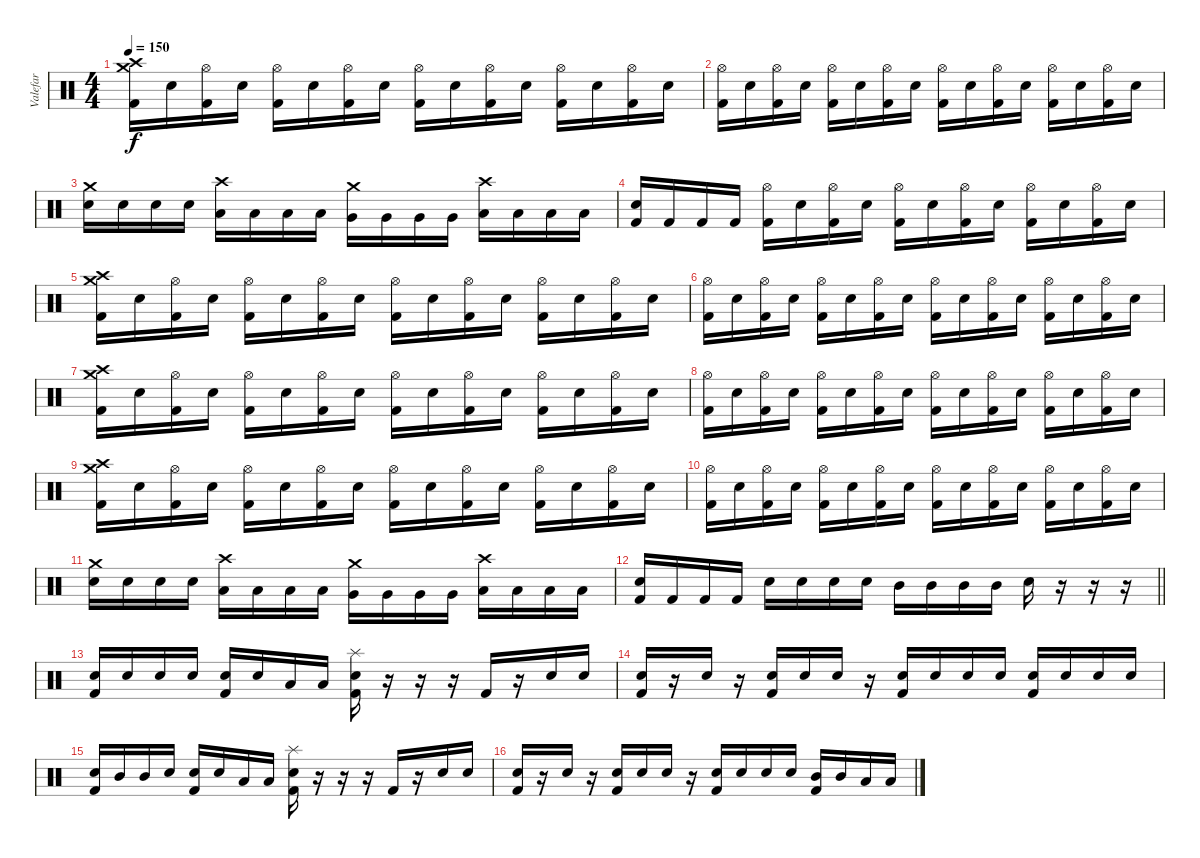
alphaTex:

\track ("Valefar" "Valefar") {instrument percussion}
\staff {score}
\articulation defaults
\ts (4 4)
\tempo 150
\clef neutral
\ks c
("Crash medium (hit)" "Crash high (hit)" "Kick (hit) 2").16{dy f} "Electric Snare (hit)".16 ("Hi-Hat (open)" "Kick (hit) 2").16 "Electric Snare (hit)".16 ("Hi-Hat (open)" "Kick (hit) 2").16 "Electric Snare (hit)".16 ("Hi-Hat (open)" "Kick (hit) 2").16 "Electric Snare (hit)".16 ("Hi-Hat (open)" "Kick (hit) 2").16 "Electric Snare (hit)".16 ("Hi-Hat (open)" "Kick (hit) 2").16 "Electric Snare (hit)".16 ("Hi-Hat (open)" "Kick (hit) 2").16 "Electric Snare (hit)".16 ("Hi-Hat (open)" "Kick (hit) 2").16 "Electric Snare (hit)".16 |
("Hi-Hat (open)" "Kick (hit) 2").16 "Electric Snare (hit)".16 ("Hi-Hat (open)" "Kick (hit) 2").16 "Electric Snare (hit)".16 ("Hi-Hat (open)" "Kick (hit) 2").16 "Electric Snare (hit)".16 ("Hi-Hat (open)" "Kick (hit) 2").16 "Electric Snare (hit)".16 ("Hi-Hat (open)" "Kick (hit) 2").16 "Electric Snare (hit)".16 ("Hi-Hat (open)" "Kick (hit) 2").16 "Electric Snare (hit)".16 ("Hi-Hat (open)" "Kick (hit) 2").16 "Electric Snare (hit)".16 ("Hi-Hat (open)" "Kick (hit) 2").16 "Electric Snare (hit)".16 |
("Crash medium (hit)" "Electric Snare (hit)").16 "Electric Snare (hit)".16 "Electric Snare (hit)".16 "Electric Snare (hit)".16 ("Crash high (hit)" "Low Tom (hit)").16 "Low Tom (hit)".16 "Low Tom (hit)".16 "Low Tom (hit)".16 ("Crash medium (hit)" "Very Low Tom (hit)").16 "Very Low Tom (hit)".16 "Very Low Tom (hit)".16 "Very Low Tom (hit)".16 ("Crash high (hit)" "Low Floor Tom (hit)").16 "Low Floor Tom (hit)".16 "Low Floor Tom (hit)".16 "Low Floor Tom (hit)".16 |
("Electric Snare (hit)" "Kick (hit) 2").16 "Kick (hit) 2".16 "Kick (hit) 2".16 "Kick (hit) 2".16 ("Hi-Hat (open)" "Kick (hit) 2").16 "Electric Snare (hit)".16 ("Hi-Hat (open)" "Kick (hit) 2").16 "Electric Snare (hit)".16 ("Hi-Hat (open)" "Kick (hit) 2").16 "Electric Snare (hit)".16 ("Hi-Hat (open)" "Kick (hit) 2").16 "Electric Snare (hit)".16 ("Hi-Hat (open)" "Kick (hit) 2").16 "Electric Snare (hit)".16 ("Hi-Hat (open)" "Kick (hit) 2").16 "Electric Snare (hit)".16 |
("Crash medium (hit)" "Crash high (hit)" "Kick (hit) 2").16 "Electric Snare (hit)".16 ("Hi-Hat (open)" "Kick (hit) 2").16 "Electric Snare (hit)".16 ("Hi-Hat (open)" "Kick (hit) 2").16 "Electric Snare (hit)".16 ("Hi-Hat (open)" "Kick (hit) 2").16 "Electric Snare (hit)".16 ("Hi-Hat (open)" "Kick (hit) 2").16 "Electric Snare (hit)".16 ("Hi-Hat (open)" "Kick (hit) 2").16 "Electric Snare (hit)".16 ("Hi-Hat (open)" "Kick (hit) 2").16 "Electric Snare (hit)".16 ("Hi-Hat (open)" "Kick (hit) 2").16 "Electric Snare (hit)".16 |
("Hi-Hat (open)" "Kick (hit) 2").16 "Electric Snare (hit)".16 ("Hi-Hat (open)" "Kick (hit) 2").16 "Electric Snare (hit)".16 ("Hi-Hat (open)" "Kick (hit) 2").16 "Electric Snare (hit)".16 ("Hi-Hat (open)" "Kick (hit) 2").16 "Electric Snare (hit)".16 ("Hi-Hat (open)" "Kick (hit) 2").16 "Electric Snare (hit)".16 ("Hi-Hat (open)" "Kick (hit) 2").16 "Electric Snare (hit)".16 ("Hi-Hat (open)" "Kick (hit) 2").16 "Electric Snare (hit)".16 ("Hi-Hat (open)" "Kick (hit) 2").16 "Electric Snare (hit)".16 |
("Crash medium (hit)" "Crash high (hit)" "Kick (hit) 2").16 "Electric Snare (hit)".16 ("Hi-Hat (open)" "Kick (hit) 2").16 "Electric Snare (hit)".16 ("Hi-Hat (open)" "Kick (hit) 2").16 "Electric Snare (hit)".16 ("Hi-Hat (open)" "Kick (hit) 2").16 "Electric Snare (hit)".16 ("Hi-Hat (open)" "Kick (hit) 2").16 "Electric Snare (hit)".16 ("Hi-Hat (open)" "Kick (hit) 2").16 "Electric Snare (hit)".16 ("Hi-Hat (open)" "Kick (hit) 2").16 "Electric Snare (hit)".16 ("Hi-Hat (open)" "Kick (hit) 2").16 "Electric Snare (hit)".16 |
("Hi-Hat (open)" "Kick (hit) 2").16 "Electric Snare (hit)".16 ("Hi-Hat (open)" "Kick (hit) 2").16 "Electric Snare (hit)".16 ("Hi-Hat (open)" "Kick (hit) 2").16 "Electric Snare (hit)".16 ("Hi-Hat (open)" "Kick (hit) 2").16 "Electric Snare (hit)".16 ("Hi-Hat (open)" "Kick (hit) 2").16 "Electric Snare (hit)".16 ("Hi-Hat (open)" "Kick (hit) 2").16 "Electric Snare (hit)".16 ("Hi-Hat (open)" "Kick (hit) 2").16 "Electric Snare (hit)".16 ("Hi-Hat (open)" "Kick (hit) 2").16 "Electric Snare (hit)".16 |
("Crash medium (hit)" "Crash high (hit)" "Kick (hit) 2").16 "Electric Snare (hit)".16 ("Hi-Hat (open)" "Kick (hit) 2").16 "Electric Snare (hit)".16 ("Hi-Hat (open)" "Kick (hit) 2").16 "Electric Snare (hit)".16 ("Hi-Hat (open)" "Kick (hit) 2").16 "Electric Snare (hit)".16 ("Hi-Hat (open)" "Kick (hit) 2").16 "Electric Snare (hit)".16 ("Hi-Hat (open)" "Kick (hit) 2").16 "Electric Snare (hit)".16 ("Hi-Hat (open)" "Kick (hit) 2").16 "Electric Snare (hit)".16 ("Hi-Hat (open)" "Kick (hit) 2").16 "Electric Snare (hit)".16 |
("Hi-Hat (open)" "Kick (hit) 2").16 "Electric Snare (hit)".16 ("Hi-Hat (open)" "Kick (hit) 2").16 "Electric Snare (hit)".16 ("Hi-Hat (open)" "Kick (hit) 2").16 "Electric Snare (hit)".16 ("Hi-Hat (open)" "Kick (hit) 2").16 "Electric Snare (hit)".16 ("Hi-Hat (open)" "Kick (hit) 2").16 "Electric Snare (hit)".16 ("Hi-Hat (open)" "Kick (hit) 2").16 "Electric Snare (hit)".16 ("Hi-Hat (open)" "Kick (hit) 2").16 "Electric Snare (hit)".16 ("Hi-Hat (open)" "Kick (hit) 2").16 "Electric Snare (hit)".16 |
("Crash medium (hit)" "Electric Snare (hit)").16 "Electric Snare (hit)".16 "Electric Snare (hit)".16 "Electric Snare (hit)".16 ("Crash high (hit)" "Low Tom (hit)").16 "Low Tom (hit)".16 "Low Tom (hit)".16 "Low Tom (hit)".16 ("Crash medium (hit)" "Very Low Tom (hit)").16 "Very Low Tom (hit)".16 "Very Low Tom (hit)".16 "Very Low Tom (hit)".16 ("Crash high (hit)" "Low Floor Tom (hit)").16 "Low Floor Tom (hit)".16 "Low Floor Tom (hit)".16 "Low Floor Tom (hit)".16 |
\barLineRight lightlight
("Electric Snare (hit)" "Kick (hit) 2").16 "Kick (hit) 2".16 "Kick (hit) 2".16 "Kick (hit) 2".16 "Electric Snare (hit)".16 "Electric Snare (hit)".16 "Electric Snare (hit)".16 "Electric Snare (hit)".16 "Mid Tom (hit)".16 "Mid Tom (hit)".16 "Mid Tom (hit)".16 "Mid Tom (hit)".16 "Electric Snare (hit)".16 r.16 r.16 r.16 |
("Electric Snare (hit)" "Kick (hit) 2").16 "Electric Snare (hit)".16 "Electric Snare (hit)".16 "Electric Snare (hit)".16 ("Electric Snare (hit)" "Kick (hit) 2").16 "Electric Snare (hit)".16 "Low Tom (hit)".16 "Low Tom (hit)".16 ("Splash (hit)" "Electric Snare (hit)" "Kick (hit) 2").16 r.16 r.16 r.16 "Kick (hit) 2".16 r.16 "Electric Snare (hit)".16 "Electric Snare (hit)".16 |
("Electric Snare (hit)" "Kick (hit) 2").16 r.16 "Electric Snare (hit)".16 r.16 ("Electric Snare (hit)" "Kick (hit) 2").16 "Electric Snare (hit)".16 "Electric Snare (hit)".16 r.16 ("Electric Snare (hit)" "Kick (hit) 2").16 "Electric Snare (hit)".16 "Electric Snare (hit)".16 "Electric Snare (hit)".16 ("Electric Snare (hit)" "Kick (hit) 2").16 "Electric Snare (hit)".16 "Electric Snare (hit)".16 "Electric Snare (hit)".16 |
("Electric Snare (hit)" "Kick (hit) 2").16 "Mid Tom (hit)".16 "Mid Tom (hit)".16 "Electric Snare (hit)".16 ("Electric Snare (hit)" "Kick (hit) 2").16 "Electric Snare (hit)".16 "Low Tom (hit)".16 "Low Tom (hit)".16 ("Splash (hit)" "Electric Snare (hit)" "Kick (hit) 2").16 r.16 r.16 r.16 "Kick (hit) 2".16 r.16 "Electric Snare (hit)".16 "Electric Snare (hit)".16 |
("Electric Snare (hit)" "Kick (hit) 2").16 r.16 "Electric Snare (hit)".16 r.16 ("Electric Snare (hit)" "Kick (hit) 2").16 "Electric Snare (hit)".16 "Electric Snare (hit)".16 r.16 ("Electric Snare (hit)" "Kick (hit) 2").16 "Electric Snare (hit)".16 "Electric Snare (hit)".16 "Electric Snare (hit)".16 ("Mid Tom (hit)" "Kick (hit) 2").16 "Mid Tom (hit)".16 "Low Tom (hit)".16 "Low Tom (hit)".16
